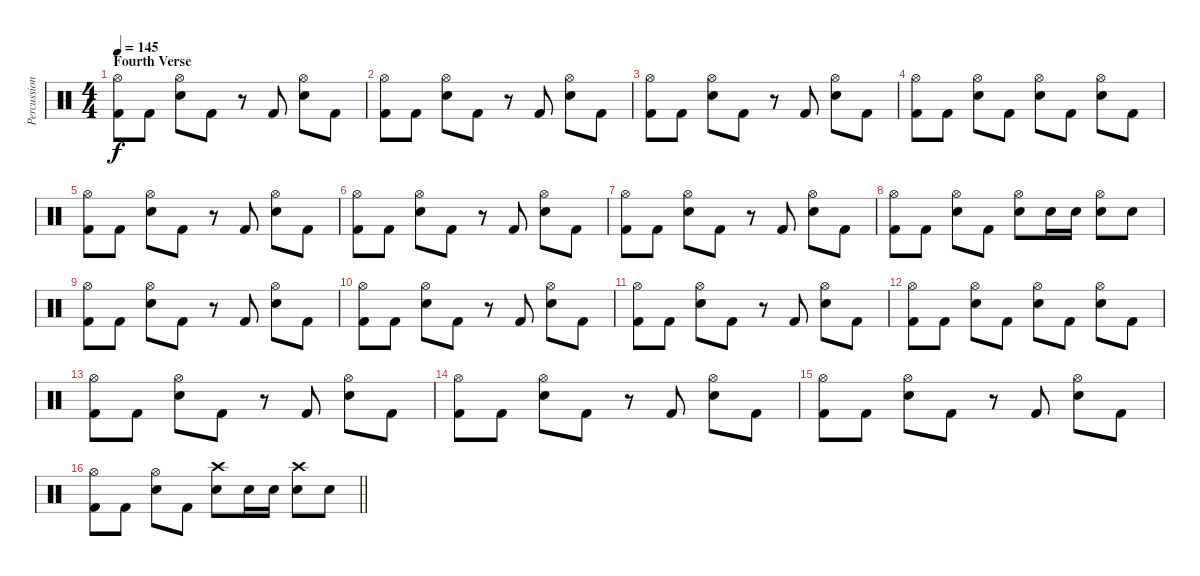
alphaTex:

\track ("Percussion" "Percussion") {instrument percussion}
\staff {score}
\articulation defaults
\ts (4 4)
\section ("" "Fourth Verse")
\tempo 145
\clef neutral
\ks c
("Hi-Hat (open)" "Kick (hit) 2").8{dy f} "Kick (hit) 2".8 ("Hi-Hat (open)" "Electric Snare (hit)").8 "Kick (hit) 2".8 r.8 "Kick (hit) 2".8 ("Hi-Hat (open)" "Electric Snare (hit)").8 "Kick (hit) 2".8 |
("Hi-Hat (open)" "Kick (hit) 2").8 "Kick (hit) 2".8 ("Hi-Hat (open)" "Electric Snare (hit)").8 "Kick (hit) 2".8 r.8 "Kick (hit) 2".8 ("Hi-Hat (open)" "Electric Snare (hit)").8 "Kick (hit) 2".8 |
("Hi-Hat (open)" "Kick (hit) 2").8 "Kick (hit) 2".8 ("Hi-Hat (open)" "Electric Snare (hit)").8 "Kick (hit) 2".8 r.8 "Kick (hit) 2".8 ("Hi-Hat (open)" "Electric Snare (hit)").8 "Kick (hit) 2".8 |
("Hi-Hat (open)" "Kick (hit) 2").8 "Kick (hit) 2".8 ("Hi-Hat (open)" "Electric Snare (hit)").8 "Kick (hit) 2".8 ("Hi-Hat (open)" "Electric Snare (hit)").8 "Kick (hit) 2".8 ("Hi-Hat (open)" "Electric Snare (hit)").8 "Kick (hit) 2".8 |
("Hi-Hat (open)" "Kick (hit) 2").8 "Kick (hit) 2".8 ("Hi-Hat (open)" "Electric Snare (hit)").8 "Kick (hit) 2".8 r.8 "Kick (hit) 2".8 ("Hi-Hat (open)" "Electric Snare (hit)").8 "Kick (hit) 2".8 |
("Hi-Hat (open)" "Kick (hit) 2").8 "Kick (hit) 2".8 ("Hi-Hat (open)" "Electric Snare (hit)").8 "Kick (hit) 2".8 r.8 "Kick (hit) 2".8 ("Hi-Hat (open)" "Electric Snare (hit)").8 "Kick (hit) 2".8 |
("Hi-Hat (open)" "Kick (hit) 2").8 "Kick (hit) 2".8 ("Hi-Hat (open)" "Electric Snare (hit)").8 "Kick (hit) 2".8 r.8 "Kick (hit) 2".8 ("Hi-Hat (open)" "Electric Snare (hit)").8 "Kick (hit) 2".8 |
("Hi-Hat (open)" "Kick (hit) 2").8 "Kick (hit) 2".8 ("Hi-Hat (open)" "Electric Snare (hit)").8 "Kick (hit) 2".8 ("Hi-Hat (open)" "Electric Snare (hit)").8 "Electric Snare (hit)".16 "Electric Snare (hit)".16 ("Hi-Hat (open)" "Electric Snare (hit)").8 "Electric Snare (hit)".8 |
("Hi-Hat (open)" "Kick (hit) 2").8 "Kick (hit) 2".8 ("Hi-Hat (open)" "Electric Snare (hit)").8 "Kick (hit) 2".8 r.8 "Kick (hit) 2".8 ("Hi-Hat (open)" "Electric Snare (hit)").8 "Kick (hit) 2".8 |
("Hi-Hat (open)" "Kick (hit) 2").8 "Kick (hit) 2".8 ("Hi-Hat (open)" "Electric Snare (hit)").8 "Kick (hit) 2".8 r.8 "Kick (hit) 2".8 ("Hi-Hat (open)" "Electric Snare (hit)").8 "Kick (hit) 2".8 |
("Hi-Hat (open)" "Kick (hit) 2").8 "Kick (hit) 2".8 ("Hi-Hat (open)" "Electric Snare (hit)").8 "Kick (hit) 2".8 r.8 "Kick (hit) 2".8 ("Hi-Hat (open)" "Electric Snare (hit)").8 "Kick (hit) 2".8 |
("Hi-Hat (open)" "Kick (hit) 2").8 "Kick (hit) 2".8 ("Hi-Hat (open)" "Electric Snare (hit)").8 "Kick (hit) 2".8 ("Hi-Hat (open)" "Electric Snare (hit)").8 "Kick (hit) 2".8 ("Hi-Hat (open)" "Electric Snare (hit)").8 "Kick (hit) 2".8 |
("Hi-Hat (open)" "Kick (hit) 2").8 "Kick (hit) 2".8 ("Hi-Hat (open)" "Electric Snare (hit)").8 "Kick (hit) 2".8 r.8 "Kick (hit) 2".8 ("Hi-Hat (open)" "Electric Snare (hit)").8 "Kick (hit) 2".8 |
("Hi-Hat (open)" "Kick (hit) 2").8 "Kick (hit) 2".8 ("Hi-Hat (open)" "Electric Snare (hit)").8 "Kick (hit) 2".8 r.8 "Kick (hit) 2".8 ("Hi-Hat (open)" "Electric Snare (hit)").8 "Kick (hit) 2".8 |
("Hi-Hat (open)" "Kick (hit) 2").8 "Kick (hit) 2".8 ("Hi-Hat (open)" "Electric Snare (hit)").8 "Kick (hit) 2".8 r.8 "Kick (hit) 2".8 ("Hi-Hat (open)" "Electric Snare (hit)").8 "Kick (hit) 2".8 |
\barLineRight lightlight
("Hi-Hat (open)" "Kick (hit) 2").8 "Kick (hit) 2".8 ("Hi-Hat (open)" "Electric Snare (hit)").8 "Kick (hit) 2".8 ("Crash high (hit)" "Electric Snare (hit)").8 "Electric Snare (hit)".16 "Electric Snare (hit)".16 ("Crash high (hit)" "Electric Snare (hit)").8 "Electric Snare (hit)".8
